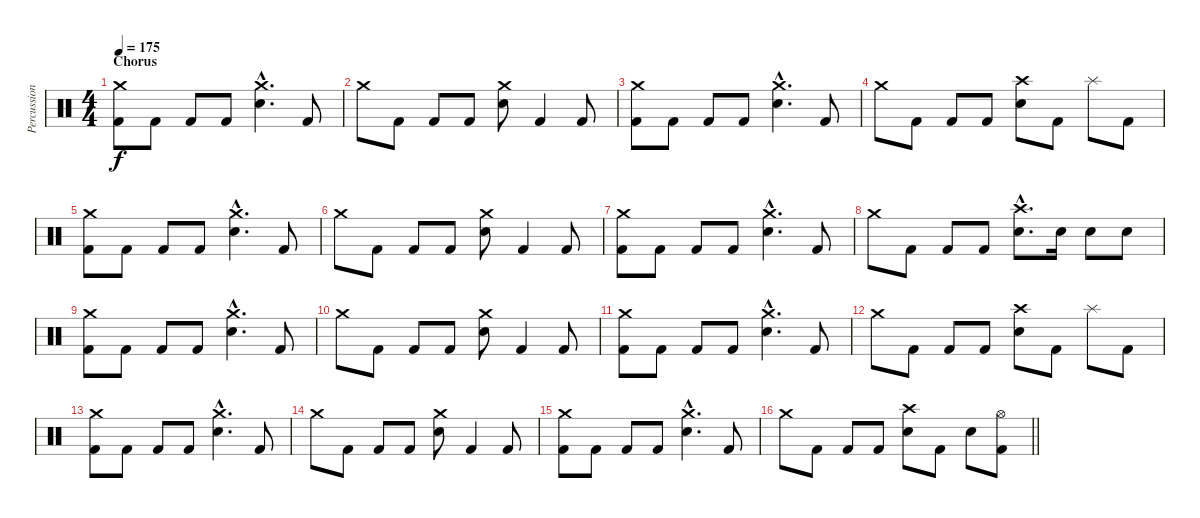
\track ("Percussion" "Percussion") {instrument percussion}
\staff {score}
\articulation defaults
\ts (4 4)
\section ("" "Chorus")
\tempo 175
\clef neutral
\ks c
("Crash medium (hit)" "Kick (hit) 2").8{dy f} "Kick (hit) 2".8 "Kick (hit) 2".8 "Kick (hit) 2".8 ("Crash medium (hit)"{hac} "Electric Snare (hit)"{hac}).4{d} "Kick (hit) 2".8 |
"Crash medium (hit)".8 "Kick (hit) 2".8 "Kick (hit) 2".8 "Kick (hit) 2".8 ("Crash medium (hit)" "Electric Snare (hit)").8 "Kick (hit) 2".4 "Kick (hit) 2".8 |
("Crash medium (hit)" "Kick (hit) 2").8 "Kick (hit) 2".8 "Kick (hit) 2".8 "Kick (hit) 2".8 ("Crash medium (hit)"{hac} "Electric Snare (hit)"{hac}).4{d} "Kick (hit) 2".8 |
"Crash medium (hit)".8 "Kick (hit) 2".8 "Kick (hit) 2".8 "Kick (hit) 2".8 ("Crash high (hit)" "Electric Snare (hit)").8 "Kick (hit) 2".8 "Splash (hit)".8 "Kick (hit) 2".8 |
("Crash medium (hit)" "Kick (hit) 2").8 "Kick (hit) 2".8 "Kick (hit) 2".8 "Kick (hit) 2".8 ("Crash medium (hit)"{hac} "Electric Snare (hit)"{hac}).4{d} "Kick (hit) 2".8 |
"Crash medium (hit)".8 "Kick (hit) 2".8 "Kick (hit) 2".8 "Kick (hit) 2".8 ("Crash medium (hit)" "Electric Snare (hit)").8 "Kick (hit) 2".4 "Kick (hit) 2".8 |
("Crash medium (hit)" "Kick (hit) 2").8 "Kick (hit) 2".8 "Kick (hit) 2".8 "Kick (hit) 2".8 ("Crash medium (hit)"{hac} "Electric Snare (hit)"{hac}).4{d} "Kick (hit) 2".8 |
"Crash medium (hit)".8 "Kick (hit) 2".8 "Kick (hit) 2".8 "Kick (hit) 2".8 ("Crash high (hit)"{hac} "Electric Snare (hit)"{hac}).8{d} "Electric Snare (hit)".16 "Electric Snare (hit)".8 "Electric Snare (hit)".8 |
("Crash medium (hit)" "Kick (hit) 2").8 "Kick (hit) 2".8 "Kick (hit) 2".8 "Kick (hit) 2".8 ("Crash medium (hit)"{hac} "Electric Snare (hit)"{hac}).4{d} "Kick (hit) 2".8 |
"Crash medium (hit)".8 "Kick (hit) 2".8 "Kick (hit) 2".8 "Kick (hit) 2".8 ("Crash medium (hit)" "Electric Snare (hit)").8 "Kick (hit) 2".4 "Kick (hit) 2".8 |
("Crash medium (hit)" "Kick (hit) 2").8 "Kick (hit) 2".8 "Kick (hit) 2".8 "Kick (hit) 2".8 ("Crash medium (hit)"{hac} "Electric Snare (hit)"{hac}).4{d} "Kick (hit) 2".8 |
"Crash medium (hit)".8 "Kick (hit) 2".8 "Kick (hit) 2".8 "Kick (hit) 2".8 ("Crash high (hit)" "Electric Snare (hit)").8 "Kick (hit) 2".8 "Splash (hit)".8 "Kick (hit) 2".8 |
("Crash medium (hit)" "Kick (hit) 2").8 "Kick (hit) 2".8 "Kick (hit) 2".8 "Kick (hit) 2".8 ("Crash medium (hit)"{hac} "Electric Snare (hit)"{hac}).4{d} "Kick (hit) 2".8 |
"Crash medium (hit)".8 "Kick (hit) 2".8 "Kick (hit) 2".8 "Kick (hit) 2".8 ("Crash medium (hit)" "Electric Snare (hit)").8 "Kick (hit) 2".4 "Kick (hit) 2".8 |
("Crash medium (hit)" "Kick (hit) 2").8 "Kick (hit) 2".8 "Kick (hit) 2".8 "Kick (hit) 2".8 ("Crash medium (hit)"{hac} "Electric Snare (hit)"{hac}).4{d} "Kick (hit) 2".8 |
\barLineRight lightlight "Crash medium (hit)".8 "Kick (hit) 2".8 "Kick (hit) 2".8 "Kick (hit) 2".8
("Crash high (hit)" "Electric Snare (hit)").8 "Kick (hit) 2".8 "Electric Snare (hit)".8 ("Hi-Hat (open)" "Kick (hit) 2").8
